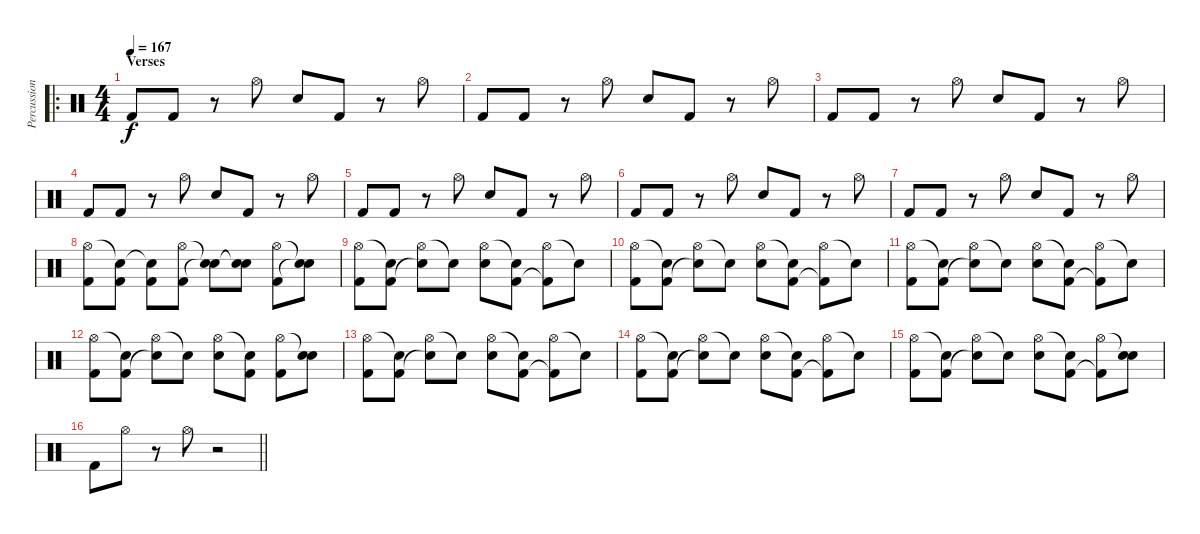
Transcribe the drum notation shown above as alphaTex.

\track ("Percussion" "Percussion") {instrument percussion}
\staff {score}
\articulation defaults
\ro
\ts (4 4)
\section ("" "Verses")
\tempo 167
\clef neutral
\ks c "Kick (hit) 2".8{dy f} "Kick (hit) 2".8
r.8 "Hi-Hat (open)".8 "Electric Snare (hit)".8 "Kick (hit) 2".8 r.8 "Hi-Hat (open)".8 |
"Kick (hit) 2".8 "Kick (hit) 2".8 r.8 "Hi-Hat (open)".8 "Electric Snare (hit)".8 "Kick (hit) 2".8 r.8 "Hi-Hat (open)".8 |
"Kick (hit) 2".8 "Kick (hit) 2".8 r.8 "Hi-Hat (open)".8 "Electric Snare (hit)".8 "Kick (hit) 2".8 r.8 "Hi-Hat (open)".8 |
"Kick (hit) 2".8 "Kick (hit) 2".8 r.8 "Hi-Hat (open)".8 "Electric Snare (hit)".8 "Kick (hit) 2".8 r.8 "Hi-Hat (open)".8 |
"Kick (hit) 2".8 "Kick (hit) 2".8 r.8 "Hi-Hat (open)".8 "Electric Snare (hit)".8 "Kick (hit) 2".8 r.8 "Hi-Hat (open)".8 |
"Kick (hit) 2".8 "Kick (hit) 2".8 r.8 "Hi-Hat (open)".8 "Electric Snare (hit)".8 "Kick (hit) 2".8 r.8 "Hi-Hat (open)".8 |
"Kick (hit) 2".8 "Kick (hit) 2".8 r.8 "Hi-Hat (open)".8 "Electric Snare (hit)".8 "Kick (hit) 2".8 r.8 "Hi-Hat (open)".8 |
("Hi-Hat (open)" "Kick (hit) 2").8 ("Snare (hit)"{t} "Kick (hit) 2").8 ("Snare (hit)"{t} "Kick (hit) 2").8 ("Hi-Hat (open)" "Kick (hit) 2").8 ("Snare (hit)"{t} "Snare (hit)"{t}).8 ("Snare (hit)"{t} "Snare (hit)"{t}).8 ("Hi-Hat (open)" "Kick (hit) 2").8 ("Snare (hit)"{t} "Snare (hit)"{t}).8 |
("Hi-Hat (open)" "Kick (hit) 2").8 ("Snare (hit)"{t} "Kick (hit) 2").8 ("Hi-Hat (open)" "Snare (hit)"{t}).8 "Snare (hit)"{t}.8 ("Hi-Hat (open)" "Electric Snare (hit)").8 ("Snare (hit)"{t} "Kick (hit) 2").8 ("Hi-Hat (open)" "Kick (hit) 2"{t}).8 "Snare (hit)"{t}.8 |
("Hi-Hat (open)" "Kick (hit) 2").8 ("Snare (hit)"{t} "Kick (hit) 2").8 ("Hi-Hat (open)" "Snare (hit)"{t}).8 "Snare (hit)"{t}.8 ("Hi-Hat (open)" "Electric Snare (hit)").8 ("Snare (hit)"{t} "Kick (hit) 2").8 ("Hi-Hat (open)" "Kick (hit) 2"{t}).8 "Snare (hit)"{t}.8 |
("Hi-Hat (open)" "Kick (hit) 2").8 ("Snare (hit)"{t} "Kick (hit) 2").8 ("Hi-Hat (open)" "Snare (hit)"{t}).8 "Snare (hit)"{t}.8 ("Hi-Hat (open)" "Electric Snare (hit)").8 ("Snare (hit)"{t} "Kick (hit) 2").8 ("Hi-Hat (open)" "Kick (hit) 2"{t}).8 "Snare (hit)"{t}.8 |
("Hi-Hat (open)" "Kick (hit) 2").8 ("Snare (hit)"{t} "Kick (hit) 2").8 ("Hi-Hat (open)" "Snare (hit)"{t}).8 "Snare (hit)"{t}.8 ("Hi-Hat (open)" "Electric Snare (hit)").8 ("Snare (hit)"{t} "Kick (hit) 2").8 ("Hi-Hat (open)" "Kick (hit) 2").8 ("Snare (hit)"{t} "Electric Snare (hit)").8 |
("Hi-Hat (open)" "Kick (hit) 2").8 ("Snare (hit)"{t} "Kick (hit) 2").8 ("Hi-Hat (open)" "Snare (hit)"{t}).8 "Snare (hit)"{t}.8 ("Hi-Hat (open)" "Electric Snare (hit)").8 ("Snare (hit)"{t} "Kick (hit) 2").8 ("Hi-Hat (open)" "Kick (hit) 2"{t}).8 "Snare (hit)"{t}.8 |
("Hi-Hat (open)" "Kick (hit) 2").8 ("Snare (hit)"{t} "Kick (hit) 2").8 ("Hi-Hat (open)" "Snare (hit)"{t}).8 "Snare (hit)"{t}.8 ("Hi-Hat (open)" "Electric Snare (hit)").8 ("Snare (hit)"{t} "Kick (hit) 2").8 ("Hi-Hat (open)" "Kick (hit) 2"{t}).8 "Snare (hit)"{t}.8 |
("Hi-Hat (open)" "Kick (hit) 2").8 ("Snare (hit)"{t} "Kick (hit) 2").8 ("Hi-Hat (open)" "Snare (hit)"{t}).8 "Snare (hit)"{t}.8 ("Hi-Hat (open)" "Electric Snare (hit)").8 ("Snare (hit)"{t} "Kick (hit) 2").8 ("Hi-Hat (open)" "Kick (hit) 2"{t}).8 ("Snare (hit)"{t} "Electric Snare (hit)").8 |
\barLineRight lightlight "Kick (hit) 2".8 "Hi-Hat (open)".8
r.8 "Hi-Hat (open)".8 r.2
